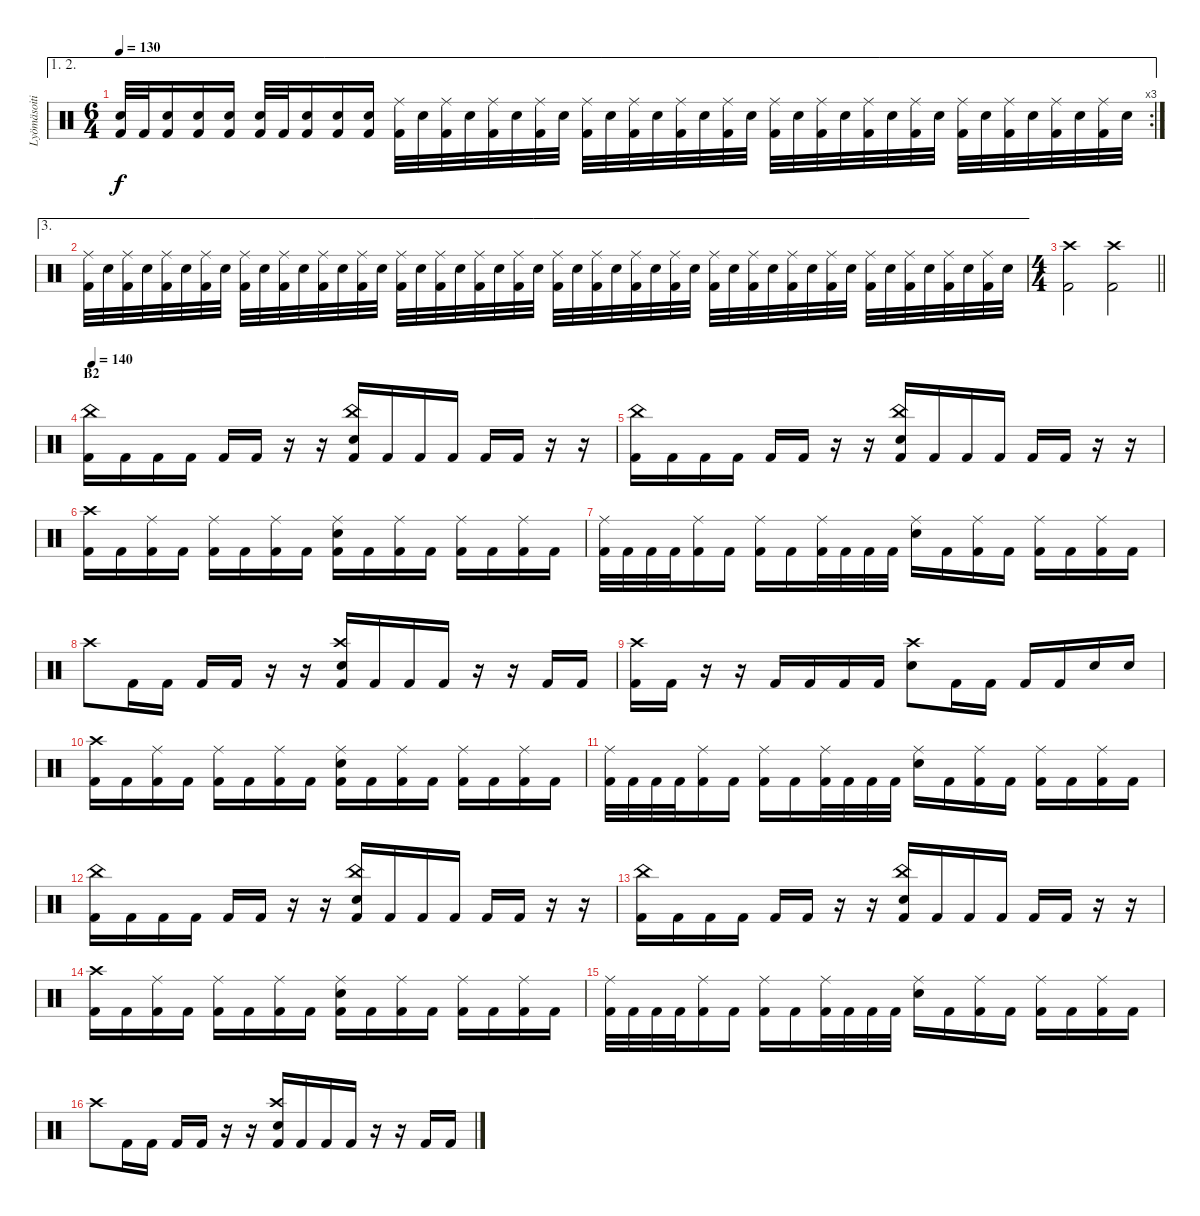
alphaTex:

\track ("Lyömäsoitin" "Lyömäsoiti") {instrument percussion}
\staff {score}
\articulation defaults
\ae (1 2)
\rc 3
\ts (6 4)
\tempo 130
\clef neutral
\ks c
("Kick (hit) 2" "Electric Snare (hit)").32{dy f} "Kick (hit) 2".32 ("Kick (hit) 2" "Electric Snare (hit)").16 ("Kick (hit) 2" "Electric Snare (hit)").16 ("Kick (hit) 2" "Electric Snare (hit)").16 ("Kick (hit) 2" "Electric Snare (hit)").32 "Kick (hit) 2".32 ("Kick (hit) 2" "Electric Snare (hit)").16 ("Kick (hit) 2" "Electric Snare (hit)").16 ("Kick (hit) 2" "Electric Snare (hit)").16 ("Ride (middle)" "Kick (hit) 2").32 "Electric Snare (hit)".32 ("Ride (middle)" "Kick (hit) 2").32 "Electric Snare (hit)".32 ("Ride (middle)" "Kick (hit) 2").32 "Electric Snare (hit)".32 ("Ride (middle)" "Kick (hit) 2").32 "Electric Snare (hit)".32 ("Ride (middle)" "Kick (hit) 2").32 "Electric Snare (hit)".32 ("Ride (middle)" "Kick (hit) 2").32 "Electric Snare (hit)".32 ("Ride (middle)" "Kick (hit) 2").32 "Electric Snare (hit)".32 ("Ride (middle)" "Kick (hit) 2").32 "Electric Snare (hit)".32 ("Ride (middle)" "Kick (hit) 2").32 "Electric Snare (hit)".32 ("Ride (middle)" "Kick (hit) 2").32 "Electric Snare (hit)".32 ("Ride (middle)" "Kick (hit) 2").32 "Electric Snare (hit)".32 ("Ride (middle)" "Kick (hit) 2").32 "Electric Snare (hit)".32 ("Ride (middle)" "Kick (hit) 2").32 "Electric Snare (hit)".32 ("Ride (middle)" "Kick (hit) 2").32 "Electric Snare (hit)".32 ("Ride (middle)" "Kick (hit) 2").32 "Electric Snare (hit)".32 ("Ride (middle)" "Kick (hit) 2").32 "Electric Snare (hit)".32 |
\ae 3
("Ride (middle)" "Kick (hit) 2").32 "Electric Snare (hit)".32 ("Ride (middle)" "Kick (hit) 2").32 "Electric Snare (hit)".32 ("Ride (middle)" "Kick (hit) 2").32 "Electric Snare (hit)".32 ("Ride (middle)" "Kick (hit) 2").32 "Electric Snare (hit)".32 ("Ride (middle)" "Kick (hit) 2").32 "Electric Snare (hit)".32 ("Ride (middle)" "Kick (hit) 2").32 "Electric Snare (hit)".32 ("Ride (middle)" "Kick (hit) 2").32 "Electric Snare (hit)".32 ("Ride (middle)" "Kick (hit) 2").32 "Electric Snare (hit)".32 ("Ride (middle)" "Kick (hit) 2").32 "Electric Snare (hit)".32 ("Ride (middle)" "Kick (hit) 2").32 "Electric Snare (hit)".32 ("Ride (middle)" "Kick (hit) 2").32 "Electric Snare (hit)".32 ("Ride (middle)" "Kick (hit) 2").32 "Electric Snare (hit)".32 ("Ride (middle)" "Kick (hit) 2").32 "Electric Snare (hit)".32 ("Ride (middle)" "Kick (hit) 2").32 "Electric Snare (hit)".32 ("Ride (middle)" "Kick (hit) 2").32 "Electric Snare (hit)".32 ("Ride (middle)" "Kick (hit) 2").32 "Electric Snare (hit)".32 ("Ride (middle)" "Kick (hit) 2").32 "Electric Snare (hit)".32 ("Ride (middle)" "Kick (hit) 2").32 "Electric Snare (hit)".32 ("Ride (middle)" "Kick (hit) 2").32 "Electric Snare (hit)".32 ("Ride (middle)" "Kick (hit) 2").32 "Electric Snare (hit)".32 ("Ride (middle)" "Kick (hit) 2").32 "Electric Snare (hit)".32 ("Ride (middle)" "Kick (hit) 2").32 "Electric Snare (hit)".32 ("Ride (middle)" "Kick (hit) 2").32 "Electric Snare (hit)".32 ("Ride (middle)" "Kick (hit) 2").32 "Electric Snare (hit)".32 |
\ts (4 4)
\barLineRight lightlight
("Kick (hit) 2" "Crash high (hit)").2 ("Kick (hit) 2" "Crash high (hit)").2 |
\section ("" "B2")
\tempo 140
("Kick (hit) 2" "China (hit)").16 "Kick (hit) 2".16 "Kick (hit) 2".16 "Kick (hit) 2".16 "Kick (hit) 2".16 "Kick (hit) 2".16 r.16 r.16 ("Snare (hit) 2" "Kick (hit) 2" "China (hit)").16 "Kick (hit) 2".16 "Kick (hit) 2".16 "Kick (hit) 2".16 "Kick (hit) 2".16 "Kick (hit) 2".16 r.16 r.16 |
("Kick (hit) 2" "China (hit)").16 "Kick (hit) 2".16 "Kick (hit) 2".16 "Kick (hit) 2".16 "Kick (hit) 2".16 "Kick (hit) 2".16 r.16 r.16 ("Snare (hit) 2" "Kick (hit) 2" "China (hit)").16 "Kick (hit) 2".16 "Kick (hit) 2".16 "Kick (hit) 2".16 "Kick (hit) 2".16 "Kick (hit) 2".16 r.16 r.16 |
("Crash high (hit)" "Kick (hit) 2").16 "Kick (hit) 2".16 ("Kick (hit) 2" "Ride (middle)").16 "Kick (hit) 2".16 ("Kick (hit) 2" "Ride (middle)").16 "Kick (hit) 2".16 ("Kick (hit) 2" "Ride (middle)").16 "Kick (hit) 2".16 ("Kick (hit) 2" "Ride (middle)" "Electric Snare (hit)").16 "Kick (hit) 2".16 ("Kick (hit) 2" "Ride (middle)").16 "Kick (hit) 2".16 ("Kick (hit) 2" "Ride (middle)").16 "Kick (hit) 2".16 ("Kick (hit) 2" "Ride (middle)").16 "Kick (hit) 2".16 |
("Kick (hit) 2" "Ride (middle)").32 "Kick (hit) 2".32 "Kick (hit) 2".32 "Kick (hit) 2".32 ("Kick (hit) 2" "Ride (middle)").16 "Kick (hit) 2".16 ("Kick (hit) 2" "Ride (middle)").16 "Kick (hit) 2".16 ("Kick (hit) 2" "Ride (middle)").32 "Kick (hit) 2".32 "Kick (hit) 2".32 "Kick (hit) 2".32 ("Snare (hit) 2" "Ride (middle)").16 "Kick (hit) 2".16 ("Kick (hit) 2" "Ride (middle)").16 "Kick (hit) 2".16 ("Kick (hit) 2" "Ride (middle)").16 "Kick (hit) 2".16 ("Kick (hit) 2" "Ride (middle)").16 "Kick (hit) 2".16 |
"Crash high (hit)".8 "Kick (hit) 2".16 "Kick (hit) 2".16 "Kick (hit) 2".16 "Kick (hit) 2".16 r.16 r.16 ("Snare (hit) 2" "Kick (hit) 2" "Crash high (hit)").16 "Kick (hit) 2".16 "Kick (hit) 2".16 "Kick (hit) 2".16 r.16 r.16 "Kick (hit) 2".16 "Kick (hit) 2".16 |
("Kick (hit) 2" "Crash high (hit)").16 "Kick (hit) 2".16 r.16 r.16 "Kick (hit) 2".16 "Kick (hit) 2".16 "Kick (hit) 2".16 "Kick (hit) 2".16 ("Snare (hit) 2" "Crash high (hit)").8 "Kick (hit) 2".16 "Kick (hit) 2".16 "Kick (hit) 2".16 "Kick (hit) 2".16 "Snare (hit) 2".16 "Snare (hit) 2".16 |
("Crash high (hit)" "Kick (hit) 2").16 "Kick (hit) 2".16 ("Kick (hit) 2" "Ride (middle)").16 "Kick (hit) 2".16 ("Kick (hit) 2" "Ride (middle)").16 "Kick (hit) 2".16 ("Kick (hit) 2" "Ride (middle)").16 "Kick (hit) 2".16 ("Kick (hit) 2" "Ride (middle)" "Electric Snare (hit)").16 "Kick (hit) 2".16 ("Kick (hit) 2" "Ride (middle)").16 "Kick (hit) 2".16 ("Kick (hit) 2" "Ride (middle)").16 "Kick (hit) 2".16 ("Kick (hit) 2" "Ride (middle)").16 "Kick (hit) 2".16 |
("Kick (hit) 2" "Ride (middle)").32 "Kick (hit) 2".32 "Kick (hit) 2".32 "Kick (hit) 2".32 ("Kick (hit) 2" "Ride (middle)").16 "Kick (hit) 2".16 ("Kick (hit) 2" "Ride (middle)").16 "Kick (hit) 2".16 ("Kick (hit) 2" "Ride (middle)").32 "Kick (hit) 2".32 "Kick (hit) 2".32 "Kick (hit) 2".32 ("Snare (hit) 2" "Ride (middle)").16 "Kick (hit) 2".16 ("Kick (hit) 2" "Ride (middle)").16 "Kick (hit) 2".16 ("Kick (hit) 2" "Ride (middle)").16 "Kick (hit) 2".16 ("Kick (hit) 2" "Ride (middle)").16 "Kick (hit) 2".16 |
("Kick (hit) 2" "China (hit)").16 "Kick (hit) 2".16 "Kick (hit) 2".16 "Kick (hit) 2".16 "Kick (hit) 2".16 "Kick (hit) 2".16 r.16 r.16 ("Snare (hit) 2" "Kick (hit) 2" "China (hit)").16 "Kick (hit) 2".16 "Kick (hit) 2".16 "Kick (hit) 2".16 "Kick (hit) 2".16 "Kick (hit) 2".16 r.16 r.16 |
("Kick (hit) 2" "China (hit)").16 "Kick (hit) 2".16 "Kick (hit) 2".16 "Kick (hit) 2".16 "Kick (hit) 2".16 "Kick (hit) 2".16 r.16 r.16 ("Snare (hit) 2" "Kick (hit) 2" "China (hit)").16 "Kick (hit) 2".16 "Kick (hit) 2".16 "Kick (hit) 2".16 "Kick (hit) 2".16 "Kick (hit) 2".16 r.16 r.16 |
("Crash high (hit)" "Kick (hit) 2").16 "Kick (hit) 2".16 ("Kick (hit) 2" "Ride (middle)").16 "Kick (hit) 2".16 ("Kick (hit) 2" "Ride (middle)").16 "Kick (hit) 2".16 ("Kick (hit) 2" "Ride (middle)").16 "Kick (hit) 2".16 ("Kick (hit) 2" "Ride (middle)" "Electric Snare (hit)").16 "Kick (hit) 2".16 ("Kick (hit) 2" "Ride (middle)").16 "Kick (hit) 2".16 ("Kick (hit) 2" "Ride (middle)").16 "Kick (hit) 2".16 ("Kick (hit) 2" "Ride (middle)").16 "Kick (hit) 2".16 |
("Kick (hit) 2" "Ride (middle)").32 "Kick (hit) 2".32 "Kick (hit) 2".32 "Kick (hit) 2".32 ("Kick (hit) 2" "Ride (middle)").16 "Kick (hit) 2".16 ("Kick (hit) 2" "Ride (middle)").16 "Kick (hit) 2".16 ("Kick (hit) 2" "Ride (middle)").32 "Kick (hit) 2".32 "Kick (hit) 2".32 "Kick (hit) 2".32 ("Snare (hit) 2" "Ride (middle)").16 "Kick (hit) 2".16 ("Kick (hit) 2" "Ride (middle)").16 "Kick (hit) 2".16 ("Kick (hit) 2" "Ride (middle)").16 "Kick (hit) 2".16 ("Kick (hit) 2" "Ride (middle)").16 "Kick (hit) 2".16 |
"Crash high (hit)".8 "Kick (hit) 2".16 "Kick (hit) 2".16 "Kick (hit) 2".16 "Kick (hit) 2".16 r.16 r.16 ("Snare (hit) 2" "Kick (hit) 2" "Crash high (hit)").16 "Kick (hit) 2".16 "Kick (hit) 2".16 "Kick (hit) 2".16 r.16 r.16 "Kick (hit) 2".16 "Kick (hit) 2".16
